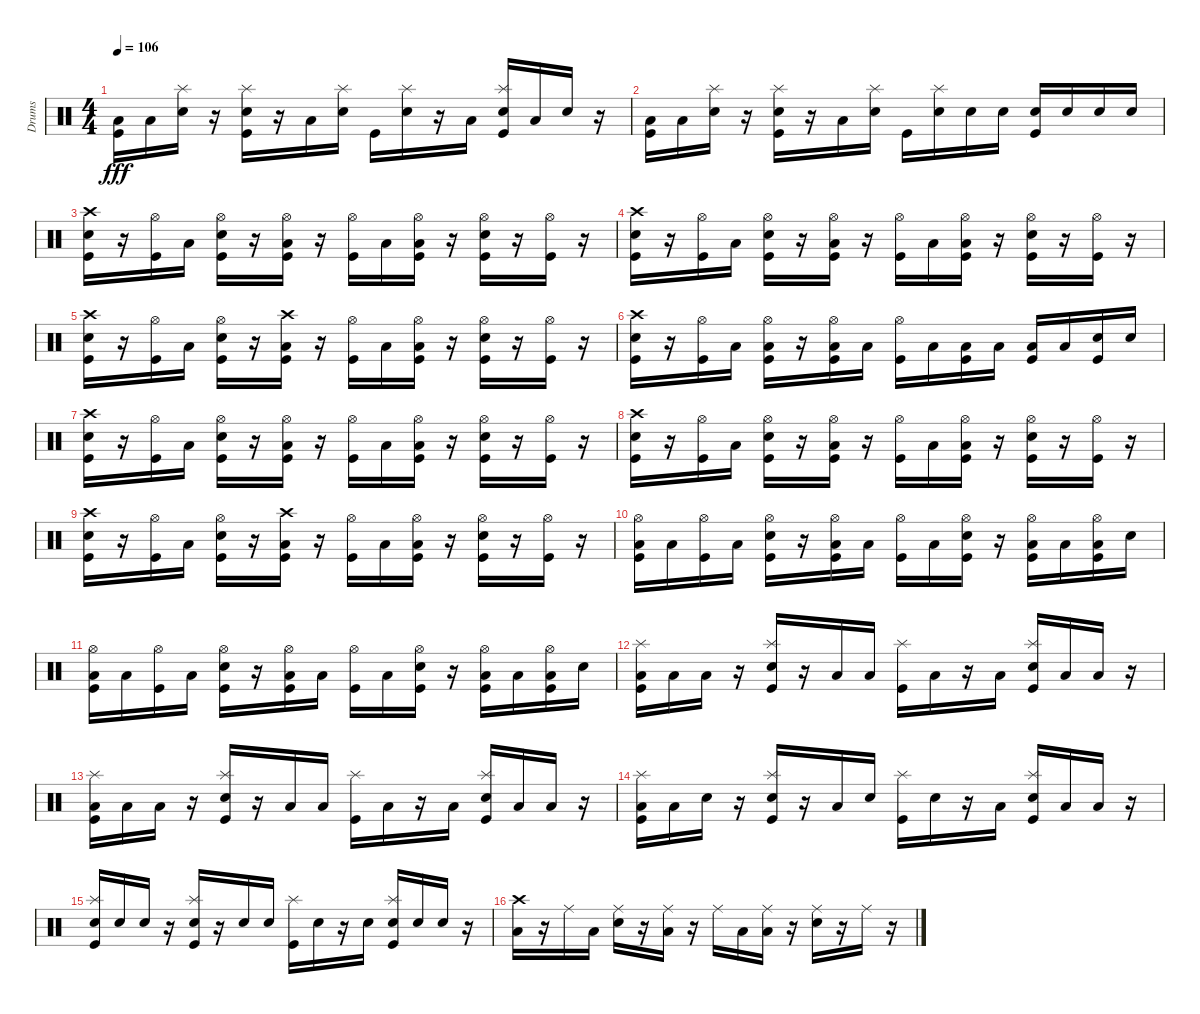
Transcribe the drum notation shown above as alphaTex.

\track ("Drums" "Drums") {instrument percussion}
\staff {score}
\articulation defaults
\ts (4 4)
\tempo 106
\clef neutral
\ks c
("Low Floor Tom (hit)" "Kick (hit)").16{dy fff} "Low Floor Tom (hit)".16 ("Splash (hit)" "Snare (hit) 2").16 r.16 ("Splash (hit)" "Snare (hit) 2" "Kick (hit)").16 r.16 "Low Floor Tom (hit)".16 ("Splash (hit)" "Snare (hit) 2").16 "Kick (hit)".16 ("Splash (hit)" "Snare (hit) 2").16 r.16 "Low Floor Tom (hit)".16 ("Splash (hit)" "Snare (hit) 2" "Kick (hit)").16 "Low Floor Tom (hit)".16 "Snare (hit) 2".16 r.16 |
("Low Floor Tom (hit)" "Kick (hit)").16 "Low Floor Tom (hit)".16 ("Splash (hit)" "Snare (hit) 2").16 r.16 ("Splash (hit)" "Snare (hit) 2" "Kick (hit)").16 r.16 "Low Floor Tom (hit)".16 ("Splash (hit)" "Snare (hit) 2").16 "Kick (hit)".16 ("Splash (hit)" "Snare (hit) 2").16 "Snare (hit) 2".16 "Snare (hit) 2".16 ("Snare (hit) 2" "Kick (hit)").16 "Snare (hit) 2".16 "Snare (hit) 2".16 "Snare (hit) 2".16 |
("Crash high (hit)" "Snare (hit) 2" "Kick (hit)").16 r.16 ("Hi-Hat (open)" "Kick (hit)").16 "Low Floor Tom (hit)".16 ("Hi-Hat (open)" "Snare (hit) 2" "Kick (hit)").16 r.16 ("Hi-Hat (open)" "Low Floor Tom (hit)" "Kick (hit)").16 r.16 ("Hi-Hat (open)" "Kick (hit)").16 "Low Floor Tom (hit)".16 ("Hi-Hat (open)" "Low Floor Tom (hit)" "Kick (hit)").16 r.16 ("Hi-Hat (open)" "Snare (hit) 2" "Kick (hit)").16 r.16 ("Hi-Hat (open)" "Kick (hit)").16 r.16 |
("Crash high (hit)" "Snare (hit) 2" "Kick (hit)").16 r.16 ("Hi-Hat (open)" "Kick (hit)").16 "Low Floor Tom (hit)".16 ("Hi-Hat (open)" "Snare (hit) 2" "Kick (hit)").16 r.16 ("Hi-Hat (open)" "Low Floor Tom (hit)" "Kick (hit)").16 r.16 ("Hi-Hat (open)" "Kick (hit)").16 "Low Floor Tom (hit)".16 ("Hi-Hat (open)" "Low Floor Tom (hit)" "Kick (hit)").16 r.16 ("Hi-Hat (open)" "Snare (hit) 2" "Kick (hit)").16 r.16 ("Hi-Hat (open)" "Kick (hit)").16 r.16 |
("Crash high (hit)" "Snare (hit) 2" "Kick (hit)").16 r.16 ("Hi-Hat (open)" "Kick (hit)").16 "Low Floor Tom (hit)".16 ("Hi-Hat (open)" "Snare (hit) 2" "Kick (hit)").16 r.16 ("Crash high (hit)" "Low Floor Tom (hit)" "Kick (hit)").16 r.16 ("Hi-Hat (open)" "Kick (hit)").16 "Low Floor Tom (hit)".16 ("Hi-Hat (open)" "Low Floor Tom (hit)" "Kick (hit)").16 r.16 ("Hi-Hat (open)" "Snare (hit) 2" "Kick (hit)").16 r.16 ("Hi-Hat (open)" "Kick (hit)").16 r.16 |
("Crash high (hit)" "Snare (hit) 2" "Kick (hit)").16 r.16 ("Hi-Hat (open)" "Kick (hit)").16 "Low Floor Tom (hit)".16 ("Hi-Hat (open)" "Low Floor Tom (hit)" "Kick (hit)").16 r.16 ("Hi-Hat (open)" "Low Floor Tom (hit)" "Kick (hit)").16 "Low Floor Tom (hit)".16 ("Hi-Hat (open)" "Kick (hit)").16 "Low Floor Tom (hit)".16 ("Low Floor Tom (hit)" "Kick (hit)").16 "Low Floor Tom (hit)".16 ("Low Floor Tom (hit)" "Kick (hit)").16 "Low Floor Tom (hit)".16 ("Snare (hit) 2" "Kick (hit)").16 "Snare (hit) 2".16 |
("Crash high (hit)" "Snare (hit) 2" "Kick (hit)").16 r.16 ("Hi-Hat (open)" "Kick (hit)").16 "Low Floor Tom (hit)".16 ("Hi-Hat (open)" "Snare (hit) 2" "Kick (hit)").16 r.16 ("Hi-Hat (open)" "Low Floor Tom (hit)" "Kick (hit)").16 r.16 ("Hi-Hat (open)" "Kick (hit)").16 "Low Floor Tom (hit)".16 ("Hi-Hat (open)" "Low Floor Tom (hit)" "Kick (hit)").16 r.16 ("Hi-Hat (open)" "Snare (hit) 2" "Kick (hit)").16 r.16 ("Hi-Hat (open)" "Kick (hit)").16 r.16 |
("Crash high (hit)" "Snare (hit) 2" "Kick (hit)").16 r.16 ("Hi-Hat (open)" "Kick (hit)").16 "Low Floor Tom (hit)".16 ("Hi-Hat (open)" "Snare (hit) 2" "Kick (hit)").16 r.16 ("Hi-Hat (open)" "Low Floor Tom (hit)" "Kick (hit)").16 r.16 ("Hi-Hat (open)" "Kick (hit)").16 "Low Floor Tom (hit)".16 ("Hi-Hat (open)" "Low Floor Tom (hit)" "Kick (hit)").16 r.16 ("Hi-Hat (open)" "Snare (hit) 2" "Kick (hit)").16 r.16 ("Hi-Hat (open)" "Kick (hit)").16 r.16 |
("Crash high (hit)" "Snare (hit) 2" "Kick (hit)").16 r.16 ("Hi-Hat (open)" "Kick (hit)").16 "Low Floor Tom (hit)".16 ("Hi-Hat (open)" "Snare (hit) 2" "Kick (hit)").16 r.16 ("Crash high (hit)" "Low Floor Tom (hit)" "Kick (hit)").16 r.16 ("Hi-Hat (open)" "Kick (hit)").16 "Low Floor Tom (hit)".16 ("Hi-Hat (open)" "Low Floor Tom (hit)" "Kick (hit)").16 r.16 ("Hi-Hat (open)" "Snare (hit) 2" "Kick (hit)").16 r.16 ("Hi-Hat (open)" "Kick (hit)").16 r.16 |
("Hi-Hat (open)" "Low Floor Tom (hit)" "Kick (hit)").16 "Low Floor Tom (hit)".16 ("Hi-Hat (open)" "Kick (hit)").16 "Low Floor Tom (hit)".16 ("Hi-Hat (open)" "Snare (hit) 2" "Kick (hit)").16 r.16 ("Hi-Hat (open)" "Low Floor Tom (hit)" "Kick (hit)").16 "Low Floor Tom (hit)".16 ("Hi-Hat (open)" "Kick (hit)").16 "Low Floor Tom (hit)".16 ("Hi-Hat (open)" "Snare (hit) 2" "Kick (hit)").16 r.16 ("Hi-Hat (open)" "Low Floor Tom (hit)" "Kick (hit)").16 "Low Floor Tom (hit)".16 ("Hi-Hat (open)" "Low Floor Tom (hit)" "Kick (hit)").16 "Snare (hit) 2".16 |
("Hi-Hat (open)" "Low Floor Tom (hit)" "Kick (hit)").16 "Low Floor Tom (hit)".16 ("Hi-Hat (open)" "Kick (hit)").16 "Low Floor Tom (hit)".16 ("Hi-Hat (open)" "Snare (hit) 2" "Kick (hit)").16 r.16 ("Hi-Hat (open)" "Low Floor Tom (hit)" "Kick (hit)").16 "Low Floor Tom (hit)".16 ("Hi-Hat (open)" "Kick (hit)").16 "Low Floor Tom (hit)".16 ("Hi-Hat (open)" "Snare (hit) 2" "Kick (hit)").16 r.16 ("Hi-Hat (open)" "Low Floor Tom (hit)" "Kick (hit)").16 "Low Floor Tom (hit)".16 ("Hi-Hat (open)" "Low Floor Tom (hit)" "Kick (hit)").16 "Snare (hit) 2".16 |
("Splash (hit)" "Low Floor Tom (hit)" "Kick (hit)").16 "Low Floor Tom (hit)".16 "Low Floor Tom (hit)".16 r.16 ("Splash (hit)" "Snare (hit) 2" "Kick (hit)").16 r.16 "Low Floor Tom (hit)".16 "Low Floor Tom (hit)".16 ("Splash (hit)" "Kick (hit)").16 "Low Floor Tom (hit)".16 r.16 "Low Floor Tom (hit)".16 ("Splash (hit)" "Snare (hit) 2" "Kick (hit)").16 "Low Floor Tom (hit)".16 "Low Floor Tom (hit)".16 r.16 |
("Splash (hit)" "Low Floor Tom (hit)" "Kick (hit)").16 "Low Floor Tom (hit)".16 "Low Floor Tom (hit)".16 r.16 ("Splash (hit)" "Snare (hit) 2" "Kick (hit)").16 r.16 "Low Floor Tom (hit)".16 "Low Floor Tom (hit)".16 ("Splash (hit)" "Kick (hit)").16 "Low Floor Tom (hit)".16 r.16 "Low Floor Tom (hit)".16 ("Splash (hit)" "Snare (hit) 2" "Kick (hit)").16 "Low Floor Tom (hit)".16 "Low Floor Tom (hit)".16 r.16 |
("Splash (hit)" "Low Floor Tom (hit)" "Kick (hit)").16 "Low Floor Tom (hit)".16 "Snare (hit) 2".16 r.16 ("Splash (hit)" "Snare (hit) 2" "Kick (hit)").16 r.16 "Low Floor Tom (hit)".16 "Snare (hit) 2".16 ("Splash (hit)" "Kick (hit)").16 "Snare (hit) 2".16 r.16 "Low Floor Tom (hit)".16 ("Splash (hit)" "Snare (hit) 2" "Kick (hit)").16 "Low Floor Tom (hit)".16 "Low Floor Tom (hit)".16 r.16 |
("Splash (hit)" "Snare (hit) 2" "Kick (hit)").16 "Snare (hit) 2".16 "Snare (hit) 2".16 r.16 ("Splash (hit)" "Snare (hit) 2" "Kick (hit)").16 r.16 "Snare (hit) 2".16 "Snare (hit) 2".16 ("Splash (hit)" "Kick (hit)").16 "Snare (hit) 2".16 r.16 "Snare (hit) 2".16 ("Splash (hit)" "Snare (hit) 2" "Kick (hit)").16 "Snare (hit) 2".16 "Snare (hit) 2".16 r.16 |
("Crash high (hit)" "Low Floor Tom (hit)").16 r.16 "Ride (middle)".16 "Low Floor Tom (hit)".16 ("Ride (middle)" "Snare (hit) 2").16 r.16 ("Ride (middle)" "Low Floor Tom (hit)").16 r.16 "Ride (middle)".16 "Low Floor Tom (hit)".16 ("Ride (middle)" "Low Floor Tom (hit)").16 r.16 ("Ride (middle)" "Snare (hit) 2").16 r.16 "Ride (middle)".16 r.16
